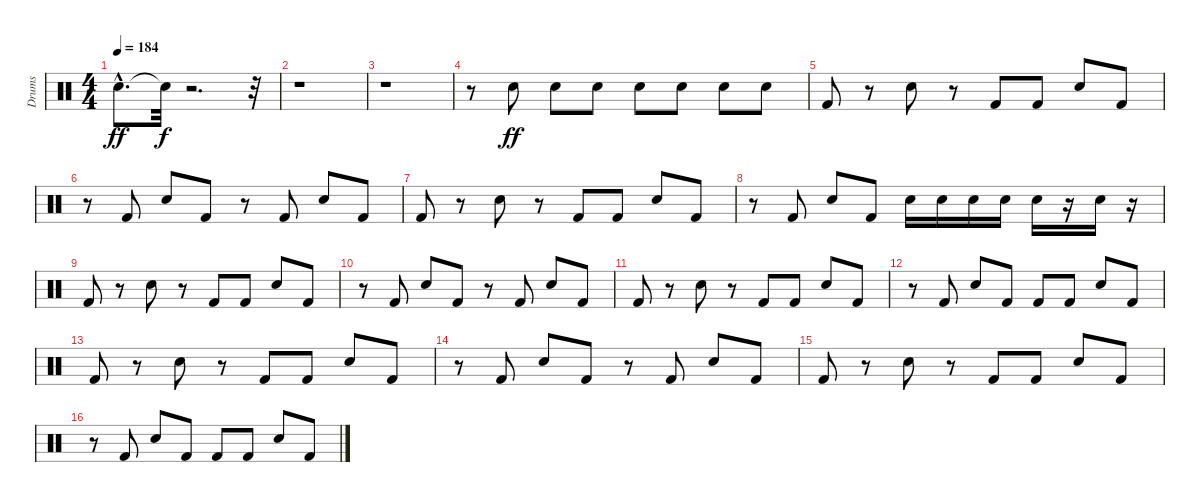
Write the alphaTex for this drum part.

\track ("Drums" "Drums") {instrument percussion}
\staff {score}
\articulation defaults
\ts (4 4)
\tempo 184
\clef neutral
\ks c "Electric Snare (hit)"{hac}.8{d dy ff} "Snare (hit)"{t}.32{dy f}
r.2{d} r.32 |
r.1 |
r.1 |
r.8 "Electric Snare (hit)".8{dy ff} "Electric Snare (hit)".8 "Electric Snare (hit)".8 "Electric Snare (hit)".8 "Electric Snare (hit)".8 "Electric Snare (hit)".8 "Electric Snare (hit)".8 |
"Kick (hit) 2".8 r.8 "Electric Snare (hit)".8 r.8 "Kick (hit) 2".8 "Kick (hit) 2".8 "Electric Snare (hit)".8 "Kick (hit) 2".8 |
r.8 "Kick (hit) 2".8 "Electric Snare (hit)".8 "Kick (hit) 2".8 r.8 "Kick (hit) 2".8 "Electric Snare (hit)".8 "Kick (hit) 2".8 |
"Kick (hit) 2".8 r.8 "Electric Snare (hit)".8 r.8 "Kick (hit) 2".8 "Kick (hit) 2".8 "Electric Snare (hit)".8 "Kick (hit) 2".8 |
r.8 "Kick (hit) 2".8 "Electric Snare (hit)".8 "Kick (hit) 2".8 "Electric Snare (hit)".16 "Electric Snare (hit)".16 "Electric Snare (hit)".16 "Electric Snare (hit)".16 "Electric Snare (hit)".16 r.16 "Electric Snare (hit)".16 r.16 |
"Kick (hit) 2".8 r.8 "Electric Snare (hit)".8 r.8 "Kick (hit) 2".8 "Kick (hit) 2".8 "Electric Snare (hit)".8 "Kick (hit) 2".8 |
r.8 "Kick (hit) 2".8 "Electric Snare (hit)".8 "Kick (hit) 2".8 r.8 "Kick (hit) 2".8 "Electric Snare (hit)".8 "Kick (hit) 2".8 |
"Kick (hit) 2".8 r.8 "Electric Snare (hit)".8 r.8 "Kick (hit) 2".8 "Kick (hit) 2".8 "Electric Snare (hit)".8 "Kick (hit) 2".8 |
r.8 "Kick (hit) 2".8 "Electric Snare (hit)".8 "Kick (hit) 2".8 "Kick (hit) 2".8 "Kick (hit) 2".8 "Electric Snare (hit)".8 "Kick (hit) 2".8 |
"Kick (hit) 2".8 r.8 "Electric Snare (hit)".8 r.8 "Kick (hit) 2".8 "Kick (hit) 2".8 "Electric Snare (hit)".8 "Kick (hit) 2".8 |
r.8 "Kick (hit) 2".8 "Electric Snare (hit)".8 "Kick (hit) 2".8 r.8 "Kick (hit) 2".8 "Electric Snare (hit)".8 "Kick (hit) 2".8 |
"Kick (hit) 2".8 r.8 "Electric Snare (hit)".8 r.8 "Kick (hit) 2".8 "Kick (hit) 2".8 "Electric Snare (hit)".8 "Kick (hit) 2".8 |
r.8 "Kick (hit) 2".8 "Electric Snare (hit)".8 "Kick (hit) 2".8 "Kick (hit) 2".8 "Kick (hit) 2".8 "Electric Snare (hit)".8 "Kick (hit) 2".8
